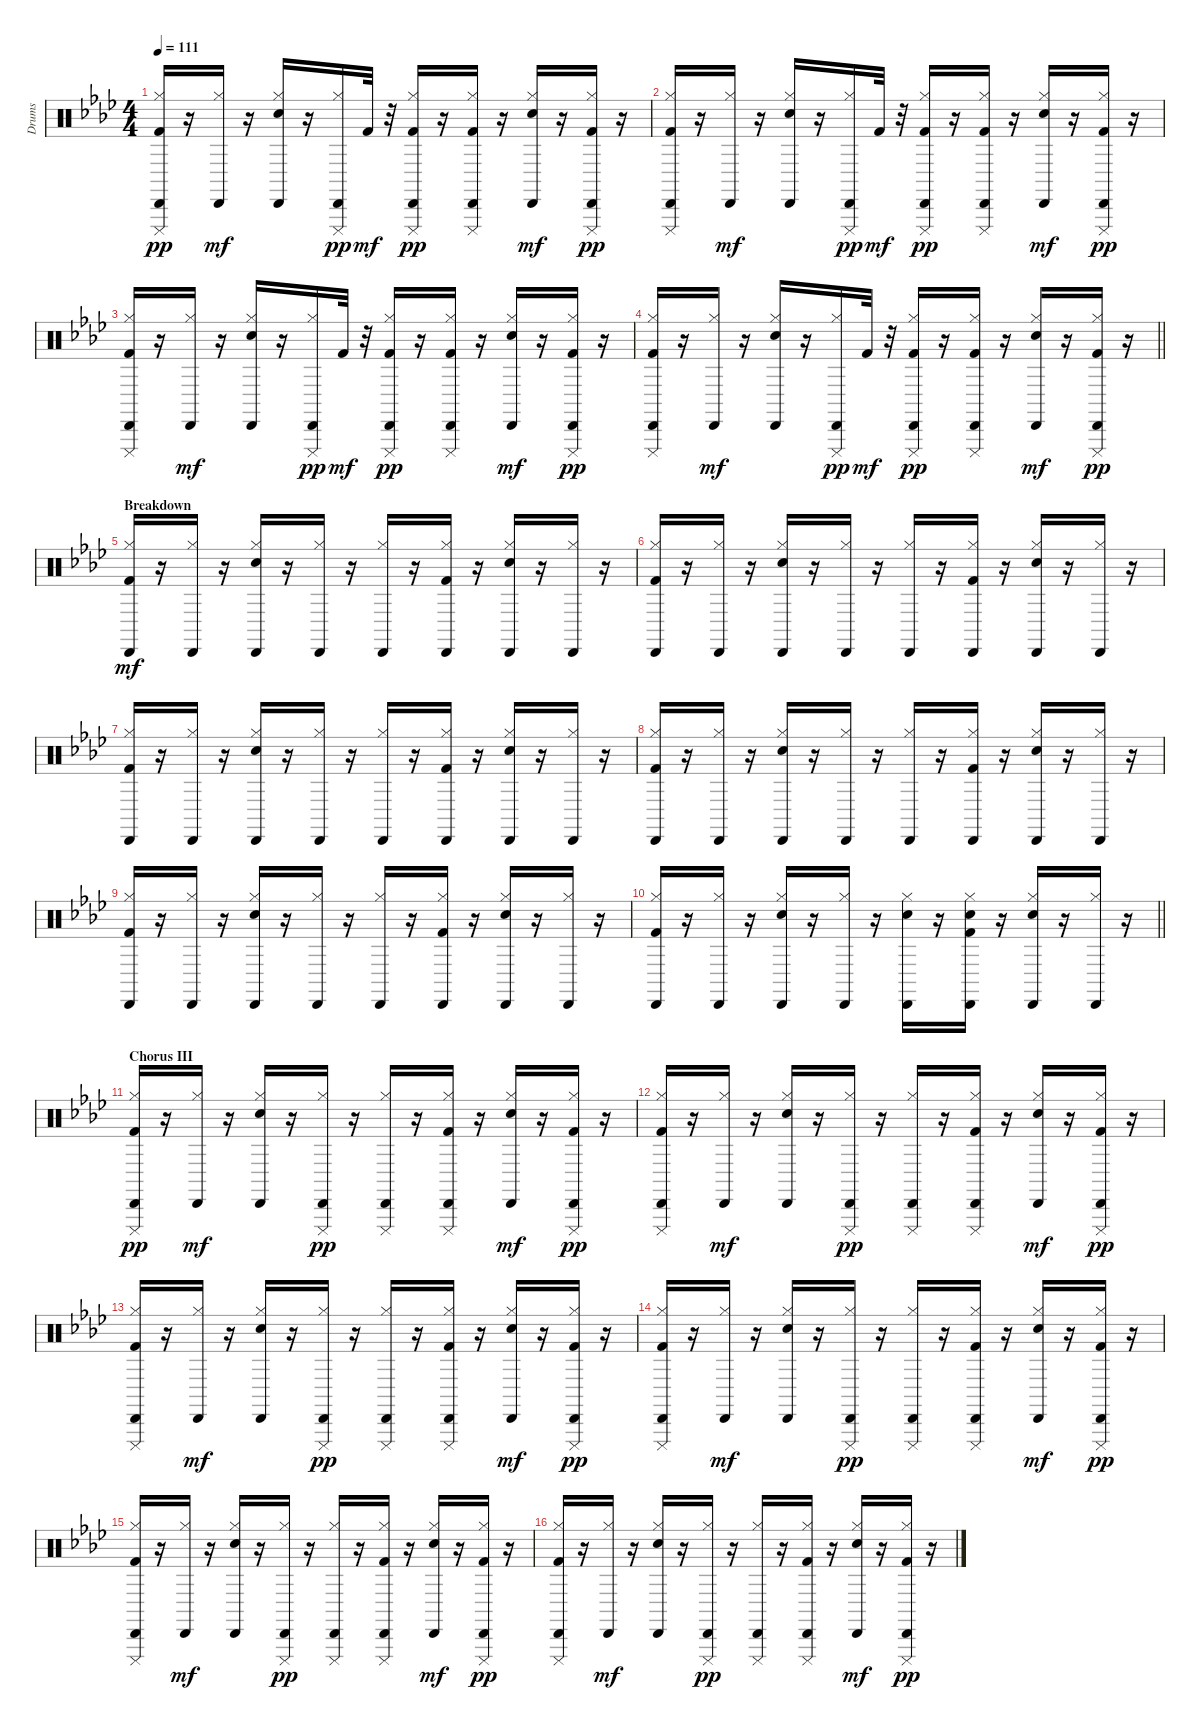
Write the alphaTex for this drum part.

\track ("Drums" "Drums") {instrument percussion}
\staff {score}
\articulation defaults
\ts (4 4)
\tempo 111
\clef neutral
\ks ab
("Kick (hit) 2" "Hi-Hat (closed)" "Cabasa (hit)" "Cuica (mute)").16{dy pp} r.16 ("Hi-Hat (closed)" "Cabasa (hit)").16{dy mf} r.16 ("Electric Snare (hit)" "Hi-Hat (closed)" "Cabasa (hit)").16 r.16 ("Hi-Hat (closed)" "Cabasa (hit)" "Cuica (mute)").16{dy pp} "Kick (hit) 2".32{dy mf} r.32 ("Kick (hit) 2" "Hi-Hat (closed)" "Cabasa (hit)" "Cuica (mute)").16{dy pp} r.16 ("Kick (hit) 2" "Hi-Hat (closed)" "Cabasa (hit)" "Cuica (mute)").16 r.16 ("Electric Snare (hit)" "Hi-Hat (closed)" "Cabasa (hit)").16{dy mf} r.16 ("Kick (hit) 2" "Hi-Hat (closed)" "Cabasa (hit)" "Cuica (mute)").16{dy pp} r.16 |
("Kick (hit) 2" "Hi-Hat (closed)" "Cabasa (hit)" "Cuica (mute)").16 r.16 ("Hi-Hat (closed)" "Cabasa (hit)").16{dy mf} r.16 ("Electric Snare (hit)" "Hi-Hat (closed)" "Cabasa (hit)").16 r.16 ("Hi-Hat (closed)" "Cabasa (hit)" "Cuica (mute)").16{dy pp} "Kick (hit) 2".32{dy mf} r.32 ("Kick (hit) 2" "Hi-Hat (closed)" "Cabasa (hit)" "Cuica (mute)").16{dy pp} r.16 ("Kick (hit) 2" "Hi-Hat (closed)" "Cabasa (hit)" "Cuica (mute)").16 r.16 ("Electric Snare (hit)" "Hi-Hat (closed)" "Cabasa (hit)").16{dy mf} r.16 ("Kick (hit) 2" "Hi-Hat (closed)" "Cabasa (hit)" "Cuica (mute)").16{dy pp} r.16 |
("Kick (hit) 2" "Hi-Hat (closed)" "Cabasa (hit)" "Cuica (mute)").16 r.16 ("Hi-Hat (closed)" "Cabasa (hit)").16{dy mf} r.16 ("Electric Snare (hit)" "Hi-Hat (closed)" "Cabasa (hit)").16 r.16 ("Hi-Hat (closed)" "Cabasa (hit)" "Cuica (mute)").16{dy pp} "Kick (hit) 2".32{dy mf} r.32 ("Kick (hit) 2" "Hi-Hat (closed)" "Cabasa (hit)" "Cuica (mute)").16{dy pp} r.16 ("Kick (hit) 2" "Hi-Hat (closed)" "Cabasa (hit)" "Cuica (mute)").16 r.16 ("Electric Snare (hit)" "Hi-Hat (closed)" "Cabasa (hit)").16{dy mf} r.16 ("Kick (hit) 2" "Hi-Hat (closed)" "Cabasa (hit)" "Cuica (mute)").16{dy pp} r.16 |
\barLineRight lightlight
("Kick (hit) 2" "Hi-Hat (closed)" "Cabasa (hit)" "Cuica (mute)").16 r.16 ("Hi-Hat (closed)" "Cabasa (hit)").16{dy mf} r.16 ("Electric Snare (hit)" "Hi-Hat (closed)" "Cabasa (hit)").16 r.16 ("Hi-Hat (closed)" "Cabasa (hit)" "Cuica (mute)").16{dy pp} "Kick (hit) 2".32{dy mf} r.32 ("Kick (hit) 2" "Hi-Hat (closed)" "Cabasa (hit)" "Cuica (mute)").16{dy pp} r.16 ("Kick (hit) 2" "Hi-Hat (closed)" "Cabasa (hit)" "Cuica (mute)").16 r.16 ("Electric Snare (hit)" "Hi-Hat (closed)" "Cabasa (hit)").16{dy mf} r.16 ("Kick (hit) 2" "Hi-Hat (closed)" "Cabasa (hit)" "Cuica (mute)").16{dy pp} r.16 |
\section ("" "Breakdown")
("Kick (hit) 2" "Hi-Hat (closed)" "Cabasa (hit)").16{dy mf} r.16 ("Hi-Hat (closed)" "Cabasa (hit)").16 r.16 ("Electric Snare (hit)" "Hi-Hat (closed)" "Cabasa (hit)").16 r.16 ("Hi-Hat (closed)" "Cabasa (hit)").16 r.16 ("Hi-Hat (closed)" "Cabasa (hit)").16 r.16 ("Kick (hit) 2" "Hi-Hat (closed)" "Cabasa (hit)").16 r.16 ("Electric Snare (hit)" "Hi-Hat (closed)" "Cabasa (hit)").16 r.16 ("Hi-Hat (closed)" "Cabasa (hit)").16 r.16 |
("Kick (hit) 2" "Hi-Hat (closed)" "Cabasa (hit)").16 r.16 ("Hi-Hat (closed)" "Cabasa (hit)").16 r.16 ("Electric Snare (hit)" "Hi-Hat (closed)" "Cabasa (hit)").16 r.16 ("Hi-Hat (closed)" "Cabasa (hit)").16 r.16 ("Hi-Hat (closed)" "Cabasa (hit)").16 r.16 ("Kick (hit) 2" "Hi-Hat (closed)" "Cabasa (hit)").16 r.16 ("Electric Snare (hit)" "Hi-Hat (closed)" "Cabasa (hit)").16 r.16 ("Hi-Hat (closed)" "Cabasa (hit)").16 r.16 |
("Kick (hit) 2" "Hi-Hat (closed)" "Cabasa (hit)").16 r.16 ("Hi-Hat (closed)" "Cabasa (hit)").16 r.16 ("Electric Snare (hit)" "Hi-Hat (closed)" "Cabasa (hit)").16 r.16 ("Hi-Hat (closed)" "Cabasa (hit)").16 r.16 ("Hi-Hat (closed)" "Cabasa (hit)").16 r.16 ("Kick (hit) 2" "Hi-Hat (closed)" "Cabasa (hit)").16 r.16 ("Electric Snare (hit)" "Hi-Hat (closed)" "Cabasa (hit)").16 r.16 ("Hi-Hat (closed)" "Cabasa (hit)").16 r.16 |
("Kick (hit) 2" "Hi-Hat (closed)" "Cabasa (hit)").16 r.16 ("Hi-Hat (closed)" "Cabasa (hit)").16 r.16 ("Electric Snare (hit)" "Hi-Hat (closed)" "Cabasa (hit)").16 r.16 ("Hi-Hat (closed)" "Cabasa (hit)").16 r.16 ("Hi-Hat (closed)" "Cabasa (hit)").16 r.16 ("Kick (hit) 2" "Hi-Hat (closed)" "Cabasa (hit)").16 r.16 ("Electric Snare (hit)" "Hi-Hat (closed)" "Cabasa (hit)").16 r.16 ("Hi-Hat (closed)" "Cabasa (hit)").16 r.16 |
("Kick (hit) 2" "Hi-Hat (closed)" "Cabasa (hit)").16 r.16 ("Hi-Hat (closed)" "Cabasa (hit)").16 r.16 ("Electric Snare (hit)" "Hi-Hat (closed)" "Cabasa (hit)").16 r.16 ("Hi-Hat (closed)" "Cabasa (hit)").16 r.16 ("Hi-Hat (closed)" "Cabasa (hit)").16 r.16 ("Kick (hit) 2" "Hi-Hat (closed)" "Cabasa (hit)").16 r.16 ("Electric Snare (hit)" "Hi-Hat (closed)" "Cabasa (hit)").16 r.16 ("Hi-Hat (closed)" "Cabasa (hit)").16 r.16 |
\barLineRight lightlight
("Kick (hit) 2" "Hi-Hat (closed)" "Cabasa (hit)").16 r.16 ("Hi-Hat (closed)" "Cabasa (hit)").16 r.16 ("Electric Snare (hit)" "Hi-Hat (closed)" "Cabasa (hit)").16 r.16 ("Hi-Hat (closed)" "Cabasa (hit)").16 r.16 ("Electric Snare (hit)" "Hi-Hat (closed)" "Cabasa (hit)").16 r.16 ("Kick (hit) 2" "Electric Snare (hit)" "Hi-Hat (closed)" "Cabasa (hit)").16 r.16 ("Electric Snare (hit)" "Hi-Hat (closed)" "Cabasa (hit)").16 r.16 ("Hi-Hat (closed)" "Cabasa (hit)").16 r.16 |
\section ("" "Chorus III")
("Kick (hit) 2" "Hi-Hat (closed)" "Cabasa (hit)" "Cuica (mute)").16{dy pp} r.16 ("Hi-Hat (closed)" "Cabasa (hit)").16{dy mf} r.16 ("Electric Snare (hit)" "Hi-Hat (closed)" "Cabasa (hit)").16 r.16 ("Hi-Hat (closed)" "Cabasa (hit)" "Cuica (mute)").16{dy pp} r.16 ("Hi-Hat (closed)" "Cabasa (hit)" "Cuica (mute)").16 r.16 ("Kick (hit) 2" "Hi-Hat (closed)" "Cabasa (hit)" "Cuica (mute)").16 r.16 ("Electric Snare (hit)" "Hi-Hat (closed)" "Cabasa (hit)").16{dy mf} r.16 ("Kick (hit) 2" "Hi-Hat (closed)" "Cabasa (hit)" "Cuica (mute)").16{dy pp} r.16 |
("Kick (hit) 2" "Hi-Hat (closed)" "Cabasa (hit)" "Cuica (mute)").16 r.16 ("Hi-Hat (closed)" "Cabasa (hit)").16{dy mf} r.16 ("Electric Snare (hit)" "Hi-Hat (closed)" "Cabasa (hit)").16 r.16 ("Hi-Hat (closed)" "Cabasa (hit)" "Cuica (mute)").16{dy pp} r.16 ("Hi-Hat (closed)" "Cabasa (hit)" "Cuica (mute)").16 r.16 ("Kick (hit) 2" "Hi-Hat (closed)" "Cabasa (hit)" "Cuica (mute)").16 r.16 ("Electric Snare (hit)" "Hi-Hat (closed)" "Cabasa (hit)").16{dy mf} r.16 ("Kick (hit) 2" "Hi-Hat (closed)" "Cabasa (hit)" "Cuica (mute)").16{dy pp} r.16 |
("Kick (hit) 2" "Hi-Hat (closed)" "Cabasa (hit)" "Cuica (mute)").16 r.16 ("Hi-Hat (closed)" "Cabasa (hit)").16{dy mf} r.16 ("Electric Snare (hit)" "Hi-Hat (closed)" "Cabasa (hit)").16 r.16 ("Hi-Hat (closed)" "Cabasa (hit)" "Cuica (mute)").16{dy pp} r.16 ("Hi-Hat (closed)" "Cabasa (hit)" "Cuica (mute)").16 r.16 ("Kick (hit) 2" "Hi-Hat (closed)" "Cabasa (hit)" "Cuica (mute)").16 r.16 ("Electric Snare (hit)" "Hi-Hat (closed)" "Cabasa (hit)").16{dy mf} r.16 ("Kick (hit) 2" "Hi-Hat (closed)" "Cabasa (hit)" "Cuica (mute)").16{dy pp} r.16 |
("Kick (hit) 2" "Hi-Hat (closed)" "Cabasa (hit)" "Cuica (mute)").16 r.16 ("Hi-Hat (closed)" "Cabasa (hit)").16{dy mf} r.16 ("Electric Snare (hit)" "Hi-Hat (closed)" "Cabasa (hit)").16 r.16 ("Hi-Hat (closed)" "Cabasa (hit)" "Cuica (mute)").16{dy pp} r.16 ("Hi-Hat (closed)" "Cabasa (hit)" "Cuica (mute)").16 r.16 ("Kick (hit) 2" "Hi-Hat (closed)" "Cabasa (hit)" "Cuica (mute)").16 r.16 ("Electric Snare (hit)" "Hi-Hat (closed)" "Cabasa (hit)").16{dy mf} r.16 ("Kick (hit) 2" "Hi-Hat (closed)" "Cabasa (hit)" "Cuica (mute)").16{dy pp} r.16 |
("Kick (hit) 2" "Hi-Hat (closed)" "Cabasa (hit)" "Cuica (mute)").16 r.16 ("Hi-Hat (closed)" "Cabasa (hit)").16{dy mf} r.16 ("Electric Snare (hit)" "Hi-Hat (closed)" "Cabasa (hit)").16 r.16 ("Hi-Hat (closed)" "Cabasa (hit)" "Cuica (mute)").16{dy pp} r.16 ("Hi-Hat (closed)" "Cabasa (hit)" "Cuica (mute)").16 r.16 ("Kick (hit) 2" "Hi-Hat (closed)" "Cabasa (hit)" "Cuica (mute)").16 r.16 ("Electric Snare (hit)" "Hi-Hat (closed)" "Cabasa (hit)").16{dy mf} r.16 ("Kick (hit) 2" "Hi-Hat (closed)" "Cabasa (hit)" "Cuica (mute)").16{dy pp} r.16 |
("Kick (hit) 2" "Hi-Hat (closed)" "Cabasa (hit)" "Cuica (mute)").16 r.16 ("Hi-Hat (closed)" "Cabasa (hit)").16{dy mf} r.16 ("Electric Snare (hit)" "Hi-Hat (closed)" "Cabasa (hit)").16 r.16 ("Hi-Hat (closed)" "Cabasa (hit)" "Cuica (mute)").16{dy pp} r.16 ("Hi-Hat (closed)" "Cabasa (hit)" "Cuica (mute)").16 r.16 ("Kick (hit) 2" "Hi-Hat (closed)" "Cabasa (hit)" "Cuica (mute)").16 r.16 ("Electric Snare (hit)" "Hi-Hat (closed)" "Cabasa (hit)").16{dy mf} r.16 ("Kick (hit) 2" "Hi-Hat (closed)" "Cabasa (hit)" "Cuica (mute)").16{dy pp} r.16
